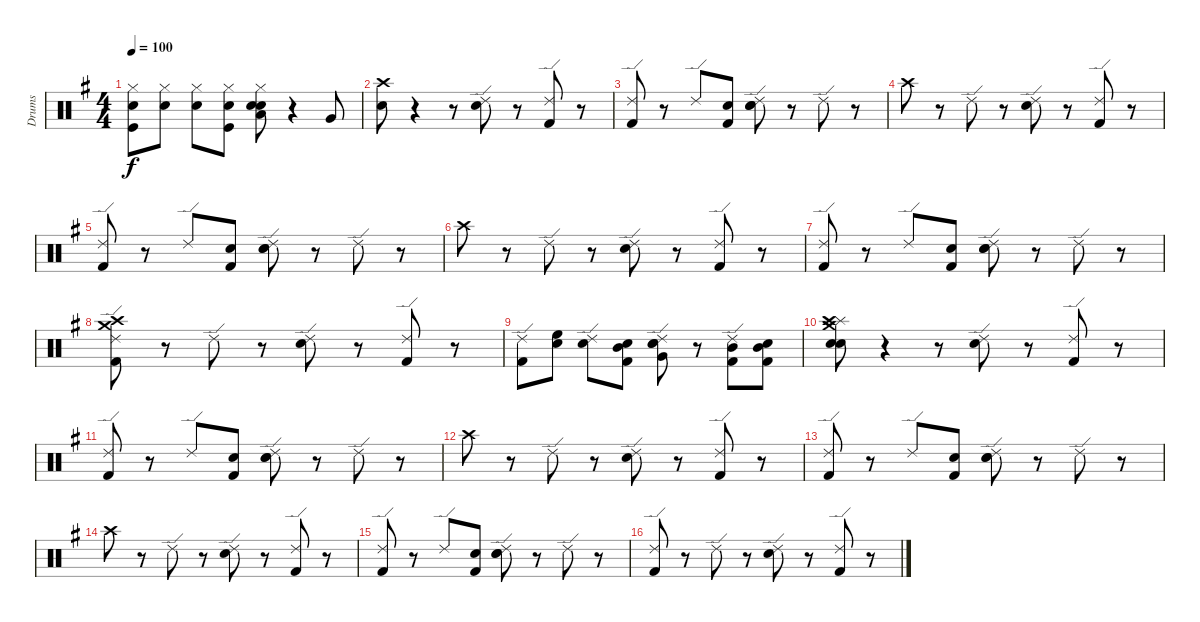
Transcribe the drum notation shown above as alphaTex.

\track ("Drums" "Drums") {instrument percussion}
\staff {score}
\articulation defaults
\ts (4 4)
\tempo 100
\clef neutral
\ks g
("Snare (hit)" "Kick (hit)" "Hi-Hat (closed)").8{dy f} ("Snare (hit)" "Hi-Hat (closed)").8 ("Snare (hit)" "Hi-Hat (closed)").8 ("Snare (hit)" "Kick (hit)" "Hi-Hat (closed)").8 ("Snare (hit)" "Low Tom (hit)" "Snare (hit) 2" "Hi-Hat (closed)").8 r.4 "Very Low Tom (hit)".8 |
("Snare (hit)" "Crash high (hit)").8 r.4 r.8 ("Snare (hit) 2" "Ride (edge) 2").8 r.8 ("Kick (hit) 2" "Ride (edge) 2").8 r.8 |
("Kick (hit) 2" "Ride (edge) 2").8 r.8 "Ride (edge) 2".8 ("Snare (hit)" "Kick (hit) 2").8 ("Snare (hit)" "Snare (hit) 2" "Ride (edge) 2").8 r.8 "Ride (edge) 2".8 r.8 |
"Crash high (hit)".8 r.8 "Ride (edge) 2".8 r.8 ("Snare (hit) 2" "Ride (edge) 2").8 r.8 ("Kick (hit) 2" "Ride (edge) 2").8 r.8 |
("Kick (hit) 2" "Ride (edge) 2").8 r.8 "Ride (edge) 2".8 ("Snare (hit)" "Kick (hit) 2").8 ("Snare (hit)" "Snare (hit) 2" "Ride (edge) 2").8 r.8 "Ride (edge) 2".8 r.8 |
"Crash high (hit)".8 r.8 "Ride (edge) 2".8 r.8 ("Snare (hit) 2" "Ride (edge) 2").8 r.8 ("Kick (hit) 2" "Ride (edge) 2").8 r.8 |
("Ride (edge) 2" "Kick (hit) 2").8 r.8 "Ride (edge) 2".8 ("Snare (hit)" "Kick (hit) 2").8 ("Snare (hit)" "Ride (edge) 2" "Snare (hit) 2").8 r.8 "Ride (edge) 2".8 r.8 |
("Crash high (hit)" "Crash medium (hit)" "Kick (hit) 2" "Ride (edge) 2").8 r.8 "Ride (edge) 2".8 r.8 ("Snare (hit) 2" "Ride (edge) 2").8 r.8 ("Kick (hit) 2" "Ride (edge) 2").8 r.8 |
("Kick (hit) 2" "Ride (edge) 2").8 ("Snare (hit)" "High Floor Tom (hit)").8 ("Snare (hit)" "Ride (edge) 2").8 ("Snare (hit)" "Mid Tom (hit)" "Kick (hit) 2").8 ("Snare (hit)" "Very Low Tom (hit)" "Snare (hit) 2" "Ride (edge) 2").8 r.8 ("Mid Tom (hit)" "Kick (hit) 2" "Ride (edge) 2").8 ("Snare (hit)" "Mid Tom (hit)" "Kick (hit) 2").8 |
("Snare (hit)" "Snare (hit) 2" "Crash medium (hit)" "Splash (hit)" "Crash high (hit)").8 r.4 r.8 ("Snare (hit) 2" "Ride (edge) 2").8 r.8 ("Kick (hit) 2" "Ride (edge) 2").8 r.8 |
("Kick (hit) 2" "Ride (edge) 2").8 r.8 "Ride (edge) 2".8 ("Snare (hit)" "Kick (hit) 2").8 ("Snare (hit)" "Snare (hit) 2" "Ride (edge) 2").8 r.8 "Ride (edge) 2".8 r.8 |
"Crash high (hit)".8 r.8 "Ride (edge) 2".8 r.8 ("Snare (hit) 2" "Ride (edge) 2").8 r.8 ("Kick (hit) 2" "Ride (edge) 2").8 r.8 |
("Kick (hit) 2" "Ride (edge) 2").8 r.8 "Ride (edge) 2".8 ("Snare (hit)" "Kick (hit) 2").8 ("Snare (hit)" "Snare (hit) 2" "Ride (edge) 2").8 r.8 "Ride (edge) 2".8 r.8 |
"Crash high (hit)".8 r.8 "Ride (edge) 2".8 r.8 ("Snare (hit) 2" "Ride (edge) 2").8 r.8 ("Kick (hit) 2" "Ride (edge) 2").8 r.8 |
("Ride (edge) 2" "Kick (hit) 2").8 r.8 "Ride (edge) 2".8 ("Snare (hit)" "Kick (hit) 2").8 ("Snare (hit)" "Ride (edge) 2" "Snare (hit) 2").8 r.8 "Ride (edge) 2".8 r.8 |
("Kick (hit) 2" "Ride (edge) 2").8 r.8 "Ride (edge) 2".8 r.8 ("Snare (hit) 2" "Ride (edge) 2").8 r.8 ("Kick (hit) 2" "Ride (edge) 2").8 r.8
